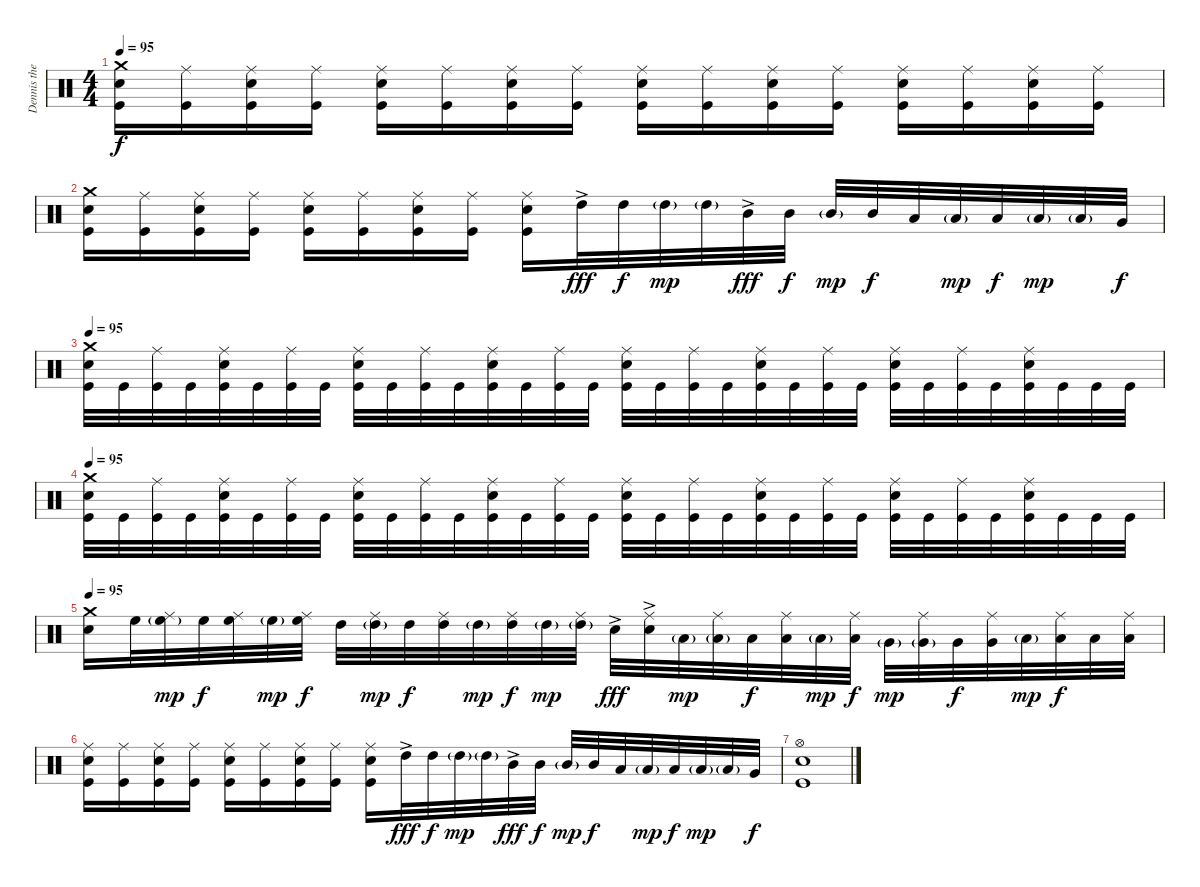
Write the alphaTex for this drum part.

\track ("Dennis the Menace" "Dennis the") {instrument percussion}
\staff {score}
\articulation defaults
\ts (4 4)
\tempo 95
\clef neutral
\ks c
("Crash medium (hit)" "Electric Snare (hit)" "Kick (hit)").16{dy f} ("Ride (middle)" "Kick (hit)").16 ("Ride (middle)" "Electric Snare (hit)" "Kick (hit)").16 ("Ride (middle)" "Kick (hit)").16 ("Ride (middle)" "Electric Snare (hit)" "Kick (hit)").16 ("Ride (middle)" "Kick (hit)").16 ("Ride (middle)" "Electric Snare (hit)" "Kick (hit)").16 ("Ride (middle)" "Kick (hit)").16 ("Ride (middle)" "Electric Snare (hit)" "Kick (hit)").16 ("Ride (middle)" "Kick (hit)").16 ("Ride (middle)" "Electric Snare (hit)" "Kick (hit)").16 ("Ride (middle)" "Kick (hit)").16 ("Ride (middle)" "Electric Snare (hit)" "Kick (hit)").16 ("Ride (middle)" "Kick (hit)").16 ("Ride (middle)" "Electric Snare (hit)" "Kick (hit)").16 ("Ride (middle)" "Kick (hit)").16 |
("Crash medium (hit)" "Electric Snare (hit)" "Kick (hit)").16 ("Ride (middle)" "Kick (hit)").16 ("Ride (middle)" "Electric Snare (hit)" "Kick (hit)").16 ("Ride (middle)" "Kick (hit)").16 ("Ride (middle)" "Electric Snare (hit)" "Kick (hit)").16 ("Ride (middle)" "Kick (hit)").16 ("Ride (middle)" "Electric Snare (hit)" "Kick (hit)").16 ("Ride (middle)" "Kick (hit)").16 ("Ride (middle)" "Electric Snare (hit)" "Kick (hit)").16 "High Tom (hit)"{ac}.32{dy fff} "High Tom (hit)".32{dy f} "High Tom (hit)"{g}.32{dy mp} "High Tom (hit)"{g}.32 "Mid Tom (hit)"{ac}.32{dy fff} "Mid Tom (hit)".32{dy f} "Mid Tom (hit)"{g}.32{dy mp} "Mid Tom (hit)".32{dy f} "Low Tom (hit)".32 "Low Tom (hit)"{g}.32{dy mp} "Low Tom (hit)".32{dy f} "Low Tom (hit)"{g}.32{dy mp} "Low Tom (hit)"{g}.32 "Very Low Tom (hit)".32{dy f} |
\tempo 95
("Crash medium (hit)" "Electric Snare (hit)" "Kick (hit)").32 "Kick (hit)".32 ("Ride (middle)" "Kick (hit)").32 "Kick (hit)".32 ("Ride (middle)" "Electric Snare (hit)" "Kick (hit)").32 "Kick (hit)".32 ("Ride (middle)" "Kick (hit)").32 "Kick (hit)".32 ("Ride (middle)" "Electric Snare (hit)" "Kick (hit)").32 "Kick (hit)".32 ("Ride (middle)" "Kick (hit)").32 "Kick (hit)".32 ("Ride (middle)" "Electric Snare (hit)" "Kick (hit)").32 "Kick (hit)".32 ("Ride (middle)" "Kick (hit)").32 "Kick (hit)".32 ("Ride (middle)" "Electric Snare (hit)" "Kick (hit)").32 "Kick (hit)".32 ("Ride (middle)" "Kick (hit)").32 "Kick (hit)".32 ("Ride (middle)" "Electric Snare (hit)" "Kick (hit)").32 "Kick (hit)".32 ("Ride (middle)" "Kick (hit)").32 "Kick (hit)".32 ("Ride (middle)" "Electric Snare (hit)" "Kick (hit)").32 "Kick (hit)".32 ("Ride (middle)" "Kick (hit)").32 "Kick (hit)".32 ("Ride (middle)" "Electric Snare (hit)" "Kick (hit)").32 "Kick (hit)".32 "Kick (hit)".32 "Kick (hit)".32 |
\tempo 95
("Crash medium (hit)" "Electric Snare (hit)" "Kick (hit)").32 "Kick (hit)".32 ("Ride (middle)" "Kick (hit)").32 "Kick (hit)".32 ("Ride (middle)" "Electric Snare (hit)" "Kick (hit)").32 "Kick (hit)".32 ("Ride (middle)" "Kick (hit)").32 "Kick (hit)".32 ("Ride (middle)" "Electric Snare (hit)" "Kick (hit)").32 "Kick (hit)".32 ("Ride (middle)" "Kick (hit)").32 "Kick (hit)".32 ("Ride (middle)" "Electric Snare (hit)" "Kick (hit)").32 "Kick (hit)".32 ("Ride (middle)" "Kick (hit)").32 "Kick (hit)".32 ("Ride (middle)" "Electric Snare (hit)" "Kick (hit)").32 "Kick (hit)".32 ("Ride (middle)" "Kick (hit)").32 "Kick (hit)".32 ("Ride (middle)" "Electric Snare (hit)" "Kick (hit)").32 "Kick (hit)".32 ("Ride (middle)" "Kick (hit)").32 "Kick (hit)".32 ("Ride (middle)" "Electric Snare (hit)" "Kick (hit)").32 "Kick (hit)".32 ("Ride (middle)" "Kick (hit)").32 "Kick (hit)".32 ("Ride (middle)" "Electric Snare (hit)" "Kick (hit)").32 "Kick (hit)".32 "Kick (hit)".32 "Kick (hit)".32 |
\tempo 95
("Crash medium (hit)" "Electric Snare (hit)").16 "High Floor Tom (hit)".32 ("Ride (middle)" "High Floor Tom (hit)"{g}).32{dy mp} "High Floor Tom (hit)".32{dy f} ("Ride (middle)" "High Floor Tom (hit)").32 "High Floor Tom (hit)"{g}.32{dy mp} ("Ride (middle)" "High Floor Tom (hit)").32{dy f} "High Tom (hit)".32 ("Ride (middle)" "High Tom (hit)"{g}).32{dy mp} "High Tom (hit)".32{dy f} ("Ride (middle)" "High Tom (hit)").32 "High Tom (hit)"{g}.32{dy mp} ("Ride (middle)" "High Tom (hit)").32{dy f} "High Tom (hit)"{g}.32{dy mp} ("Ride (middle)" "High Tom (hit)"{g}).32 "Electric Snare (hit)"{ac}.32{dy fff} ("Ride (middle)" "Electric Snare (hit)"{ac}).32 "Low Tom (hit)"{g}.32{dy mp} ("Ride (middle)" "Low Tom (hit)"{g}).32 "Low Tom (hit)".32{dy f} ("Ride (middle)" "Low Tom (hit)").32 "Low Tom (hit)"{g}.32{dy mp} ("Ride (middle)" "Low Tom (hit)").32{dy f} "Very Low Tom (hit)"{g}.32{dy mp} ("Ride (middle)" "Very Low Tom (hit)"{g}).32 "Very Low Tom (hit)".32{dy f} ("Ride (middle)" "Very Low Tom (hit)").32 "Low Floor Tom (hit)"{g}.32{dy mp} ("Ride (middle)" "Low Floor Tom (hit)").32{dy f} "Low Floor Tom (hit)".32 ("Ride (middle)" "Low Floor Tom (hit)").32 |
("Ride (middle)" "Electric Snare (hit)" "Kick (hit)").16 ("Ride (middle)" "Kick (hit)").16 ("Ride (middle)" "Electric Snare (hit)" "Kick (hit)").16 ("Ride (middle)" "Kick (hit)").16 ("Ride (middle)" "Electric Snare (hit)" "Kick (hit)").16 ("Ride (middle)" "Kick (hit)").16 ("Ride (middle)" "Electric Snare (hit)" "Kick (hit)").16 ("Ride (middle)" "Kick (hit)").16 ("Ride (middle)" "Electric Snare (hit)" "Kick (hit)").16 "High Tom (hit)"{ac}.32{dy fff} "High Tom (hit)".32{dy f} "High Tom (hit)"{g}.32{dy mp} "High Tom (hit)"{g}.32 "Mid Tom (hit)"{ac}.32{dy fff} "Mid Tom (hit)".32{dy f} "Mid Tom (hit)"{g}.32{dy mp} "Mid Tom (hit)".32{dy f} "Low Tom (hit)".32 "Low Tom (hit)"{g}.32{dy mp} "Low Tom (hit)".32{dy f} "Low Tom (hit)"{g}.32{dy mp} "Low Tom (hit)"{g}.32 "Very Low Tom (hit)".32{dy f} |
("Hi-Hat (open)" "Electric Snare (hit)" "Kick (hit)").1
